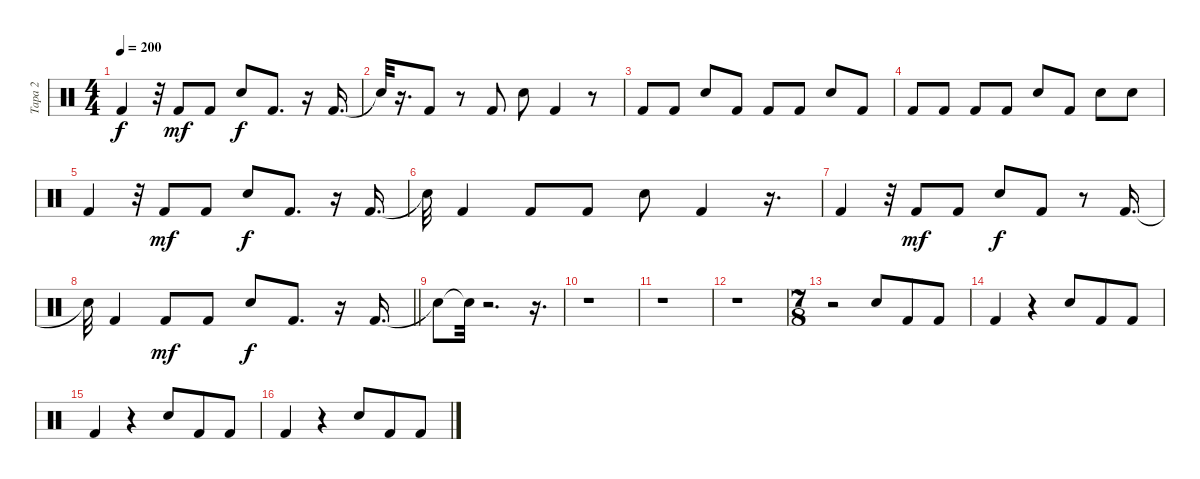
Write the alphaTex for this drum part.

\track ("Tapa 2" "Tapa 2") {instrument percussion}
\staff {score}
\articulation defaults
\ts (4 4)
\tempo 200
\clef neutral
\ks c "Kick (hit) 2".4{dy f}
r.32 "Kick (hit) 2".8{dy mf} "Kick (hit) 2".8 "Snare (hit) 2".8{dy f} "Kick (hit) 2".8{d} r.16 "Kick (hit) 2".16{d} |
"Snare (hit)"{t}.32 r.16{d} "Kick (hit) 2".8 r.8 "Kick (hit) 2".8 "Snare (hit) 2".8 "Kick (hit) 2".4 r.8 |
"Kick (hit) 2".8 "Kick (hit) 2".8 "Snare (hit) 2".8 "Kick (hit) 2".8 "Kick (hit) 2".8 "Kick (hit) 2".8 "Snare (hit) 2".8 "Kick (hit) 2".8 |
"Kick (hit) 2".8 "Kick (hit) 2".8 "Kick (hit) 2".8 "Kick (hit) 2".8 "Snare (hit) 2".8 "Kick (hit) 2".8 "Snare (hit) 2".8 "Snare (hit) 2".8 |
"Kick (hit) 2".4 r.32 "Kick (hit) 2".8{dy mf} "Kick (hit) 2".8 "Snare (hit) 2".8{dy f} "Kick (hit) 2".8{d} r.16 "Kick (hit) 2".16{d} |
"Snare (hit)"{t}.32 "Kick (hit) 2".4 "Kick (hit) 2".8 "Kick (hit) 2".8 "Snare (hit) 2".8 "Kick (hit) 2".4 r.16{d} |
"Kick (hit) 2".4 r.32 "Kick (hit) 2".8{dy mf} "Kick (hit) 2".8 "Snare (hit) 2".8{dy f} "Kick (hit) 2".8 r.8 "Kick (hit) 2".16{d} |
\barLineRight lightlight "Snare (hit)"{t}.32 "Kick (hit) 2".4 "Kick (hit) 2".8{dy mf} "Kick (hit) 2".8 "Snare (hit) 2".8{dy f} "Kick (hit) 2".8{d}
r.16 "Kick (hit) 2".16{d} |
"Snare (hit)"{t}.8 "Snare (hit)"{t}.32 r.2{d} r.16{d} |
r.1 |
r.1 |
r.1 |
\ts (7 8)
r.2 "Snare (hit) 2".8 "Kick (hit) 2".8 "Kick (hit) 2".8 |
"Kick (hit) 2".4 r.4 "Snare (hit) 2".8 "Kick (hit) 2".8 "Kick (hit) 2".8 |
"Kick (hit) 2".4 r.4 "Snare (hit) 2".8 "Kick (hit) 2".8 "Kick (hit) 2".8 |
"Kick (hit) 2".4 r.4 "Snare (hit) 2".8 "Kick (hit) 2".8 "Kick (hit) 2".8
